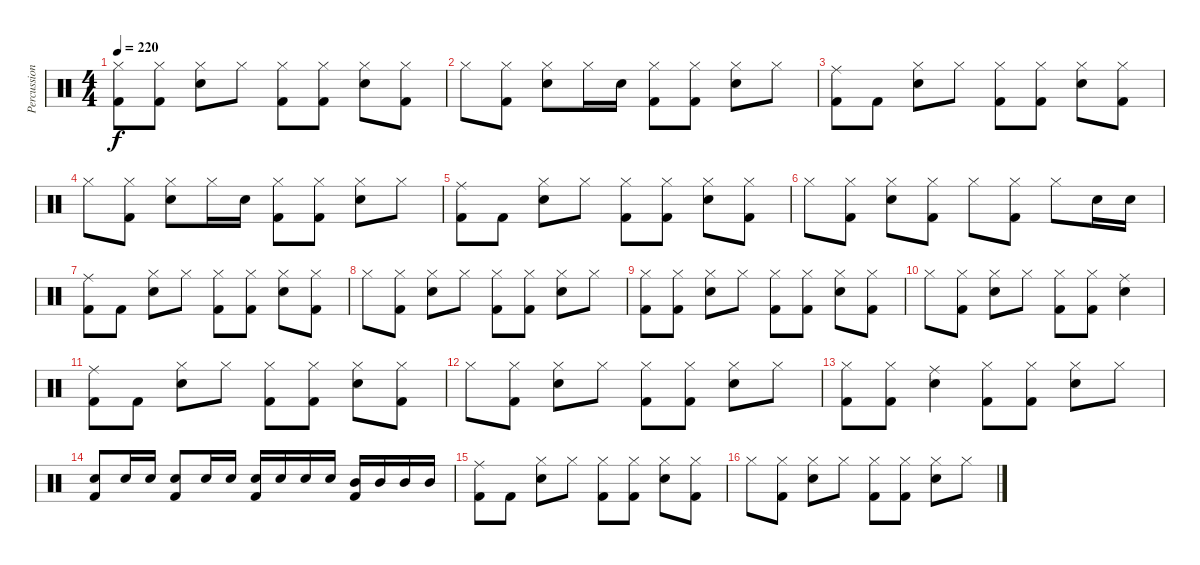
\track ("Percussion" "Percussion") {instrument percussion}
\staff {score}
\articulation defaults
\ts (4 4)
\tempo 220
\clef neutral
\ks c
("Hi-Hat (closed)" "Kick (hit) 2").8{dy f} ("Hi-Hat (closed)" "Kick (hit) 2").8 ("Hi-Hat (closed)" "Electric Snare (hit)").8 "Hi-Hat (closed)".8 ("Hi-Hat (closed)" "Kick (hit) 2").8 ("Hi-Hat (closed)" "Kick (hit) 2").8 ("Hi-Hat (closed)" "Electric Snare (hit)").8 ("Hi-Hat (closed)" "Kick (hit) 2").8 |
"Hi-Hat (closed)".8 ("Hi-Hat (closed)" "Kick (hit) 2").8 ("Hi-Hat (closed)" "Electric Snare (hit)").8 "Hi-Hat (closed)".16 "Electric Snare (hit)".16 ("Hi-Hat (closed)" "Kick (hit) 2").8 ("Hi-Hat (closed)" "Kick (hit) 2").8 ("Hi-Hat (closed)" "Electric Snare (hit)").8 "Hi-Hat (closed)".8 |
("Ride (middle)" "Kick (hit) 2").8 "Kick (hit) 2".8 ("Hi-Hat (closed)" "Electric Snare (hit)").8 "Hi-Hat (closed)".8 ("Hi-Hat (closed)" "Kick (hit) 2").8 ("Hi-Hat (closed)" "Kick (hit) 2").8 ("Hi-Hat (closed)" "Electric Snare (hit)").8 ("Hi-Hat (closed)" "Kick (hit) 2").8 |
"Hi-Hat (closed)".8 ("Hi-Hat (closed)" "Kick (hit) 2").8 ("Hi-Hat (closed)" "Electric Snare (hit)").8 "Hi-Hat (closed)".16 "Electric Snare (hit)".16 ("Hi-Hat (closed)" "Kick (hit) 2").8 ("Hi-Hat (closed)" "Kick (hit) 2").8 ("Hi-Hat (closed)" "Electric Snare (hit)").8 "Hi-Hat (closed)".8 |
("Ride (middle)" "Kick (hit) 2").8 "Kick (hit) 2".8 ("Hi-Hat (closed)" "Electric Snare (hit)").8 "Hi-Hat (closed)".8 ("Hi-Hat (closed)" "Kick (hit) 2").8 ("Hi-Hat (closed)" "Kick (hit) 2").8 ("Hi-Hat (closed)" "Electric Snare (hit)").8 ("Hi-Hat (closed)" "Kick (hit) 2").8 |
"Hi-Hat (closed)".8 ("Hi-Hat (closed)" "Kick (hit) 2").8 ("Hi-Hat (closed)" "Electric Snare (hit)").8 ("Hi-Hat (closed)" "Kick (hit) 2").8 "Hi-Hat (closed)".8 ("Hi-Hat (closed)" "Kick (hit) 2").8 "Hi-Hat (closed)".8 "Electric Snare (hit)".16 "Electric Snare (hit)".16 |
("Ride (middle)" "Kick (hit) 2").8 "Kick (hit) 2".8 ("Hi-Hat (closed)" "Electric Snare (hit)").8 "Hi-Hat (closed)".8 ("Hi-Hat (closed)" "Kick (hit) 2").8 ("Hi-Hat (closed)" "Kick (hit) 2").8 ("Hi-Hat (closed)" "Electric Snare (hit)").8 ("Hi-Hat (closed)" "Kick (hit) 2").8 |
"Hi-Hat (closed)".8 ("Hi-Hat (closed)" "Kick (hit) 2").8 ("Hi-Hat (closed)" "Electric Snare (hit)").8 "Hi-Hat (closed)".8 ("Hi-Hat (closed)" "Kick (hit) 2").8 ("Hi-Hat (closed)" "Kick (hit) 2").8 ("Hi-Hat (closed)" "Electric Snare (hit)").8 "Hi-Hat (closed)".8 |
("Hi-Hat (closed)" "Kick (hit) 2").8 ("Hi-Hat (closed)" "Kick (hit) 2").8 ("Hi-Hat (closed)" "Electric Snare (hit)").8 "Hi-Hat (closed)".8 ("Hi-Hat (closed)" "Kick (hit) 2").8 ("Hi-Hat (closed)" "Kick (hit) 2").8 ("Hi-Hat (closed)" "Electric Snare (hit)").8 ("Hi-Hat (closed)" "Kick (hit) 2").8 |
"Hi-Hat (closed)".8 ("Hi-Hat (closed)" "Kick (hit) 2").8 ("Hi-Hat (closed)" "Electric Snare (hit)").8 "Hi-Hat (closed)".8 ("Hi-Hat (closed)" "Kick (hit) 2").8 ("Hi-Hat (closed)" "Kick (hit) 2").8 ("Ride (middle)" "Electric Snare (hit)").4 |
("Ride (middle)" "Kick (hit) 2").8 "Kick (hit) 2".8 ("Hi-Hat (closed)" "Electric Snare (hit)").8 "Hi-Hat (closed)".8 ("Hi-Hat (closed)" "Kick (hit) 2").8 ("Hi-Hat (closed)" "Kick (hit) 2").8 ("Hi-Hat (closed)" "Electric Snare (hit)").8 ("Hi-Hat (closed)" "Kick (hit) 2").8 |
"Hi-Hat (closed)".8 ("Hi-Hat (closed)" "Kick (hit) 2").8 ("Hi-Hat (closed)" "Electric Snare (hit)").8 "Hi-Hat (closed)".8 ("Hi-Hat (closed)" "Kick (hit) 2").8 ("Hi-Hat (closed)" "Kick (hit) 2").8 ("Hi-Hat (closed)" "Electric Snare (hit)").8 "Hi-Hat (closed)".8 |
("Hi-Hat (closed)" "Kick (hit) 2").8 ("Hi-Hat (closed)" "Kick (hit) 2").8 ("Ride (middle)" "Electric Snare (hit)").4 ("Hi-Hat (closed)" "Kick (hit) 2").8 ("Hi-Hat (closed)" "Kick (hit) 2").8 ("Hi-Hat (closed)" "Electric Snare (hit)").8 "Hi-Hat (closed)".8 |
("Electric Snare (hit)" "Kick (hit) 2").8 "Electric Snare (hit)".16 "Electric Snare (hit)".16 ("Electric Snare (hit)" "Kick (hit) 2").8 "Electric Snare (hit)".16 "Electric Snare (hit)".16 ("Electric Snare (hit)" "Kick (hit) 2").16 "Electric Snare (hit)".16 "Electric Snare (hit)".16 "Electric Snare (hit)".16 ("Mid Tom (hit)" "Kick (hit) 2").16 "Mid Tom (hit)".16 "Mid Tom (hit)".16 "Mid Tom (hit)".16 |
("Ride (middle)" "Kick (hit) 2").8 "Kick (hit) 2".8 ("Hi-Hat (closed)" "Electric Snare (hit)").8 "Hi-Hat (closed)".8 ("Hi-Hat (closed)" "Kick (hit) 2").8 ("Hi-Hat (closed)" "Kick (hit) 2").8 ("Hi-Hat (closed)" "Electric Snare (hit)").8 ("Hi-Hat (closed)" "Kick (hit) 2").8 |
"Hi-Hat (closed)".8 ("Hi-Hat (closed)" "Kick (hit) 2").8 ("Hi-Hat (closed)" "Electric Snare (hit)").8 "Hi-Hat (closed)".8 ("Hi-Hat (closed)" "Kick (hit) 2").8 ("Hi-Hat (closed)" "Kick (hit) 2").8 ("Hi-Hat (closed)" "Electric Snare (hit)").8 "Hi-Hat (closed)".8
